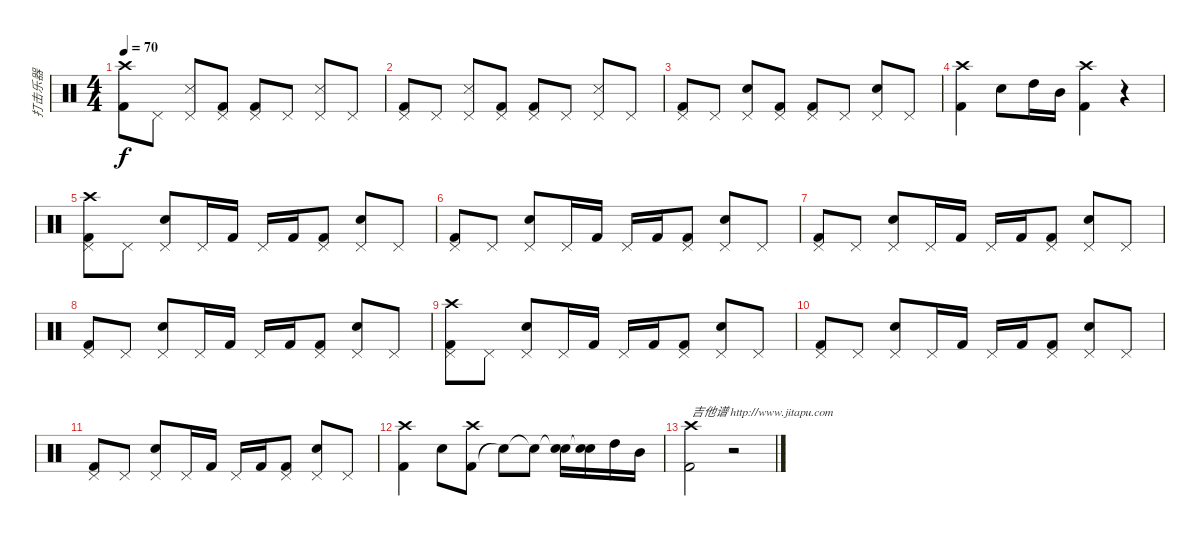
\track ("打击乐器" "打击乐器") {instrument percussion}
\staff {score}
\articulation defaults
\ts (4 4)
\tempo 70
\clef neutral
\ks c
("Crash high (hit)" "Kick (hit) 2").8{dy f} "Pedal Hi-Hat (hit)".8 ("Pedal Hi-Hat (hit)" "Snare (side stick) 3").8 ("Pedal Hi-Hat (hit)" "Kick (hit) 2").8 ("Pedal Hi-Hat (hit)" "Kick (hit) 2").8 "Pedal Hi-Hat (hit)".8 ("Pedal Hi-Hat (hit)" "Snare (side stick) 3").8 "Pedal Hi-Hat (hit)".8 |
("Pedal Hi-Hat (hit)" "Kick (hit) 2").8 "Pedal Hi-Hat (hit)".8 ("Pedal Hi-Hat (hit)" "Snare (side stick) 3").8 ("Pedal Hi-Hat (hit)" "Kick (hit) 2").8 ("Pedal Hi-Hat (hit)" "Kick (hit) 2").8 "Pedal Hi-Hat (hit)".8 ("Pedal Hi-Hat (hit)" "Snare (side stick) 3").8 "Pedal Hi-Hat (hit)".8 |
("Pedal Hi-Hat (hit)" "Kick (hit) 2").8 "Pedal Hi-Hat (hit)".8 ("Pedal Hi-Hat (hit)" "Snare (hit) 2").8 ("Pedal Hi-Hat (hit)" "Kick (hit) 2").8 ("Pedal Hi-Hat (hit)" "Kick (hit) 2").8 "Pedal Hi-Hat (hit)".8 ("Pedal Hi-Hat (hit)" "Snare (hit) 2").8 "Pedal Hi-Hat (hit)".8 |
("Crash high (hit)" "Kick (hit) 2").4 "Snare (hit) 2".8 "High Tom (hit)".16 "Mid Tom (hit)".16 ("Kick (hit) 2" "Crash high (hit)").4 r.4 |
("Pedal Hi-Hat (hit)" "Kick (hit) 2" "Crash high (hit)").8 "Pedal Hi-Hat (hit)".8 ("Pedal Hi-Hat (hit)" "Snare (hit) 2").8 "Pedal Hi-Hat (hit)".16 "Kick (hit) 2".16 "Pedal Hi-Hat (hit)".16 "Kick (hit) 2".16 ("Pedal Hi-Hat (hit)" "Kick (hit) 2").8 ("Pedal Hi-Hat (hit)" "Snare (hit) 2").8 "Pedal Hi-Hat (hit)".8 |
("Pedal Hi-Hat (hit)" "Kick (hit) 2").8 "Pedal Hi-Hat (hit)".8 ("Pedal Hi-Hat (hit)" "Snare (hit) 2").8 "Pedal Hi-Hat (hit)".16 "Kick (hit) 2".16 "Pedal Hi-Hat (hit)".16 "Kick (hit) 2".16 ("Pedal Hi-Hat (hit)" "Kick (hit) 2").8 ("Pedal Hi-Hat (hit)" "Snare (hit) 2").8 "Pedal Hi-Hat (hit)".8 |
("Pedal Hi-Hat (hit)" "Kick (hit) 2").8 "Pedal Hi-Hat (hit)".8 ("Pedal Hi-Hat (hit)" "Snare (hit) 2").8 "Pedal Hi-Hat (hit)".16 "Kick (hit) 2".16 "Pedal Hi-Hat (hit)".16 "Kick (hit) 2".16 ("Pedal Hi-Hat (hit)" "Kick (hit) 2").8 ("Pedal Hi-Hat (hit)" "Snare (hit) 2").8 "Pedal Hi-Hat (hit)".8 |
("Pedal Hi-Hat (hit)" "Kick (hit) 2").8 "Pedal Hi-Hat (hit)".8 ("Pedal Hi-Hat (hit)" "Snare (hit) 2").8 "Pedal Hi-Hat (hit)".16 "Kick (hit) 2".16 "Pedal Hi-Hat (hit)".16 "Kick (hit) 2".16 ("Pedal Hi-Hat (hit)" "Kick (hit) 2").8 ("Pedal Hi-Hat (hit)" "Snare (hit) 2").8 "Pedal Hi-Hat (hit)".8 |
("Pedal Hi-Hat (hit)" "Kick (hit) 2" "Crash high (hit)").8 "Pedal Hi-Hat (hit)".8 ("Pedal Hi-Hat (hit)" "Snare (hit) 2").8 "Pedal Hi-Hat (hit)".16 "Kick (hit) 2".16 "Pedal Hi-Hat (hit)".16 "Kick (hit) 2".16 ("Pedal Hi-Hat (hit)" "Kick (hit) 2").8 ("Pedal Hi-Hat (hit)" "Snare (hit) 2").8 "Pedal Hi-Hat (hit)".8 |
("Pedal Hi-Hat (hit)" "Kick (hit) 2").8 "Pedal Hi-Hat (hit)".8 ("Pedal Hi-Hat (hit)" "Snare (hit) 2").8 "Pedal Hi-Hat (hit)".16 "Kick (hit) 2".16 "Pedal Hi-Hat (hit)".16 "Kick (hit) 2".16 ("Pedal Hi-Hat (hit)" "Kick (hit) 2").8 ("Pedal Hi-Hat (hit)" "Snare (hit) 2").8 "Pedal Hi-Hat (hit)".8 |
("Pedal Hi-Hat (hit)" "Kick (hit) 2").8 "Pedal Hi-Hat (hit)".8 ("Pedal Hi-Hat (hit)" "Snare (hit) 2").8 "Pedal Hi-Hat (hit)".16 "Kick (hit) 2".16 "Pedal Hi-Hat (hit)".16 "Kick (hit) 2".16 ("Pedal Hi-Hat (hit)" "Kick (hit) 2").8 ("Pedal Hi-Hat (hit)" "Snare (hit) 2").8 "Pedal Hi-Hat (hit)".8 |
("Crash high (hit)" "Kick (hit) 2").4 "Snare (hit) 2".8 ("Kick (hit) 2" "Crash high (hit)").8 "Snare (hit)"{t}.8 "Snare (hit)"{t}.8 ("Snare (hit)"{t} "Snare (hit) 2").16 ("Snare (hit)"{t} "Snare (hit) 2").16 "High Tom (hit)".16 "Mid Tom (hit)".16 |
("Crash high (hit)" "Kick (hit) 2").2{txt "吉他谱 http://www.jitapu.com"} r.2
